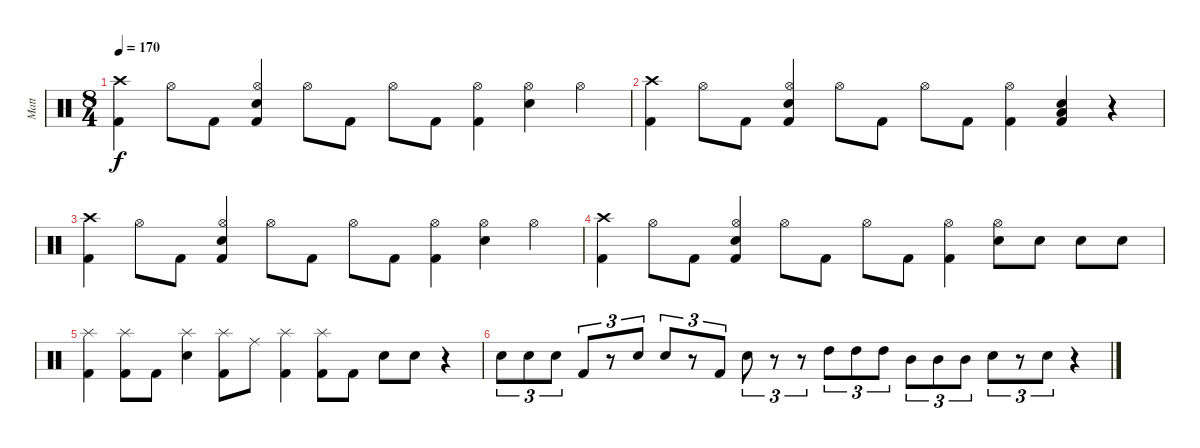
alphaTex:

\track ("Matt" "Matt") {instrument percussion}
\staff
\articulation defaults
\ts (8 4)
\tempo 170
\clef neutral
\ks c
("Crash high (hit)" "Kick (hit) 2").4{dy f} "Hi-Hat (open)".8 "Kick (hit) 2".8 ("Snare (hit) 2" "Hi-Hat (open)" "Kick (hit) 2").4 "Hi-Hat (open)".8 "Kick (hit) 2".8 "Hi-Hat (open)".8 "Kick (hit) 2".8 ("Hi-Hat (open)" "Kick (hit) 2").4 ("Snare (hit) 2" "Hi-Hat (open)").4 "Hi-Hat (open)".4 |
("Crash high (hit)" "Kick (hit) 2").4 "Hi-Hat (open)".8 "Kick (hit) 2".8 ("Snare (hit) 2" "Hi-Hat (open)" "Kick (hit) 2").4 "Hi-Hat (open)".8 "Kick (hit) 2".8 "Hi-Hat (open)".8 "Kick (hit) 2".8 ("Hi-Hat (open)" "Kick (hit) 2").4 ("Low Floor Tom (hit)" "Snare (hit) 2" "Kick (hit) 2").4 r.4 |
("Crash high (hit)" "Kick (hit) 2").4 "Hi-Hat (open)".8 "Kick (hit) 2".8 ("Snare (hit) 2" "Hi-Hat (open)" "Kick (hit) 2").4 "Hi-Hat (open)".8 "Kick (hit) 2".8 "Hi-Hat (open)".8 "Kick (hit) 2".8 ("Hi-Hat (open)" "Kick (hit) 2").4 ("Snare (hit) 2" "Hi-Hat (open)").4 "Hi-Hat (open)".4 |
("Crash high (hit)" "Kick (hit) 2").4 "Hi-Hat (open)".8 "Kick (hit) 2".8 ("Snare (hit) 2" "Hi-Hat (open)" "Kick (hit) 2").4 "Hi-Hat (open)".8 "Kick (hit) 2".8 "Hi-Hat (open)".8 "Kick (hit) 2".8 ("Hi-Hat (open)" "Kick (hit) 2").4 ("Snare (hit) 2" "Hi-Hat (open)").8 "Snare (hit) 2".8 "Snare (hit) 2".8 "Snare (hit) 2".8 |
("Splash (hit)" "Kick (hit) 2").4 ("Splash (hit)" "Kick (hit) 2").8 "Kick (hit) 2".8 ("Snare (hit) 2" "Splash (hit)").4 ("Splash (hit)" "Kick (hit) 2").8 "Ride (middle)".8 ("Splash (hit)" "Kick (hit) 2").4 ("Splash (hit)" "Kick (hit) 2").8 "Kick (hit) 2".8 "Snare (hit) 2".8 "Snare (hit) 2".8 r.4 |
"Snare (hit) 2".8{tu (3 2)} "Snare (hit) 2".8{tu (3 2)} "Snare (hit) 2".8{tu (3 2)} "Kick (hit) 2".8{tu (3 2)} r.8{tu (3 2)} "Snare (hit) 2".8{tu (3 2)} "Snare (hit) 2".8{tu (3 2)} r.8{tu (3 2)} "Kick (hit) 2".8{tu (3 2)} "Snare (hit) 2".8{tu (3 2)} r.8{tu (3 2)} r.8{tu (3 2)} "High Tom (hit)".8{tu (3 2)} "High Tom (hit)".8{tu (3 2)} "High Tom (hit)".8{tu (3 2)} "Mid Tom (hit)".8{tu (3 2)} "Mid Tom (hit)".8{tu (3 2)} "Mid Tom (hit)".8{tu (3 2)} "Snare (hit) 2".8{tu (3 2)} r.8{tu (3 2)} "Snare (hit) 2".8{tu (3 2)} r.4
